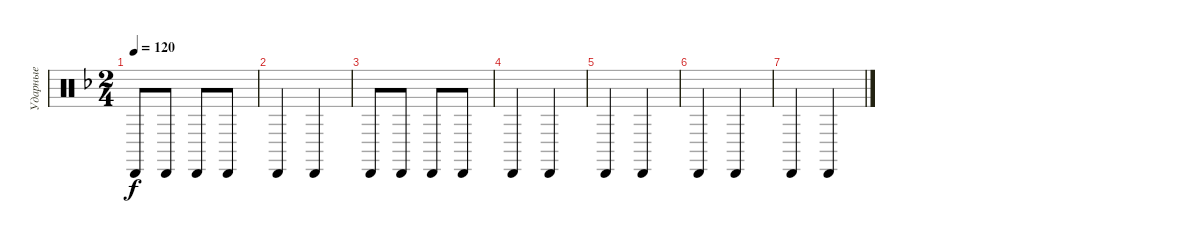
\track ("Ударные" "Ударные") {instrument percussion}
\staff {score}
\articulation defaults
\ts (2 4)
\tempo 120
\clef neutral
\ks f "Cabasa (hit)".8{dy f} "Cabasa (hit)".8 "Cabasa (hit)".8 "Cabasa (hit)".8
|
"Cabasa (hit)".4 "Cabasa (hit)".4 |
"Cabasa (hit)".8 "Cabasa (hit)".8 "Cabasa (hit)".8 "Cabasa (hit)".8 |
"Cabasa (hit)".4 "Cabasa (hit)".4 |
"Cabasa (hit)".4 "Cabasa (hit)".4 |
"Cabasa (hit)".4 "Cabasa (hit)".4 |
"Cabasa (hit)".4 "Cabasa (hit)".4
